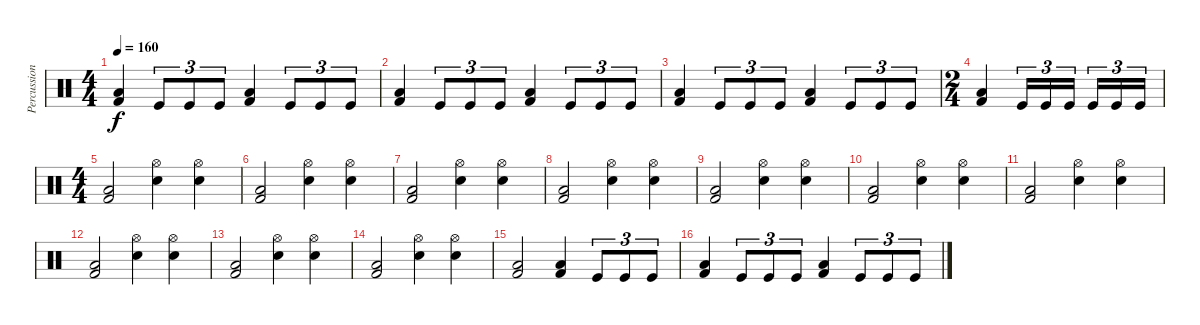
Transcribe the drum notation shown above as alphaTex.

\track ("Percussions" "Percussion") {instrument percussion}
\staff {score}
\articulation defaults
\ts (4 4)
\tempo 160
\clef neutral
\ks c
("Kick (hit) 2" "Low Floor Tom (hit)").4{dy f} "Kick (hit)".8{tu (3 2)} "Kick (hit)".8{tu (3 2)} "Kick (hit)".8{tu (3 2)} ("Kick (hit) 2" "Low Floor Tom (hit)").4 "Kick (hit)".8{tu (3 2)} "Kick (hit)".8{tu (3 2)} "Kick (hit)".8{tu (3 2)} |
("Kick (hit) 2" "Low Floor Tom (hit)").4 "Kick (hit)".8{tu (3 2)} "Kick (hit)".8{tu (3 2)} "Kick (hit)".8{tu (3 2)} ("Kick (hit) 2" "Low Floor Tom (hit)").4 "Kick (hit)".8{tu (3 2)} "Kick (hit)".8{tu (3 2)} "Kick (hit)".8{tu (3 2)} |
("Kick (hit) 2" "Low Floor Tom (hit)").4 "Kick (hit)".8{tu (3 2)} "Kick (hit)".8{tu (3 2)} "Kick (hit)".8{tu (3 2)} ("Kick (hit) 2" "Low Floor Tom (hit)").4 "Kick (hit)".8{tu (3 2)} "Kick (hit)".8{tu (3 2)} "Kick (hit)".8{tu (3 2)} |
\ts (2 4)
("Kick (hit) 2" "Low Floor Tom (hit)").4 "Kick (hit)".16{tu (3 2)} "Kick (hit)".16{tu (3 2)} "Kick (hit)".16{tu (3 2)} "Kick (hit)".16{tu (3 2)} "Kick (hit)".16{tu (3 2)} "Kick (hit)".16{tu (3 2)} |
\ts (4 4)
("Kick (hit) 2" "Low Floor Tom (hit)").2 ("Hi-Hat (open)" "Electric Snare (hit)").4 ("Hi-Hat (open)" "Electric Snare (hit)").4 |
("Kick (hit) 2" "Low Floor Tom (hit)").2 ("Hi-Hat (open)" "Electric Snare (hit)").4 ("Hi-Hat (open)" "Electric Snare (hit)").4 |
("Kick (hit) 2" "Low Floor Tom (hit)").2 ("Hi-Hat (open)" "Electric Snare (hit)").4 ("Hi-Hat (open)" "Electric Snare (hit)").4 |
("Kick (hit) 2" "Low Floor Tom (hit)").2 ("Hi-Hat (open)" "Electric Snare (hit)").4 ("Hi-Hat (open)" "Electric Snare (hit)").4 |
("Kick (hit) 2" "Low Floor Tom (hit)").2 ("Hi-Hat (open)" "Electric Snare (hit)").4 ("Hi-Hat (open)" "Electric Snare (hit)").4 |
("Kick (hit) 2" "Low Floor Tom (hit)").2 ("Hi-Hat (open)" "Electric Snare (hit)").4 ("Hi-Hat (open)" "Electric Snare (hit)").4 |
("Kick (hit) 2" "Low Floor Tom (hit)").2 ("Hi-Hat (open)" "Electric Snare (hit)").4 ("Hi-Hat (open)" "Electric Snare (hit)").4 |
("Kick (hit) 2" "Low Floor Tom (hit)").2 ("Hi-Hat (open)" "Electric Snare (hit)").4 ("Hi-Hat (open)" "Electric Snare (hit)").4 |
("Kick (hit) 2" "Low Floor Tom (hit)").2 ("Hi-Hat (open)" "Electric Snare (hit)").4 ("Hi-Hat (open)" "Electric Snare (hit)").4 |
("Kick (hit) 2" "Low Floor Tom (hit)").2 ("Hi-Hat (open)" "Electric Snare (hit)").4 ("Hi-Hat (open)" "Electric Snare (hit)").4 |
("Kick (hit) 2" "Low Floor Tom (hit)").2 ("Low Floor Tom (hit)" "Kick (hit) 2").4 "Kick (hit)".8{tu (3 2)} "Kick (hit)".8{tu (3 2)} "Kick (hit)".8{tu (3 2)} |
("Kick (hit) 2" "Low Floor Tom (hit)").4 "Kick (hit)".8{tu (3 2)} "Kick (hit)".8{tu (3 2)} "Kick (hit)".8{tu (3 2)} ("Kick (hit) 2" "Low Floor Tom (hit)").4 "Kick (hit)".8{tu (3 2)} "Kick (hit)".8{tu (3 2)} "Kick (hit)".8{tu (3 2)}
